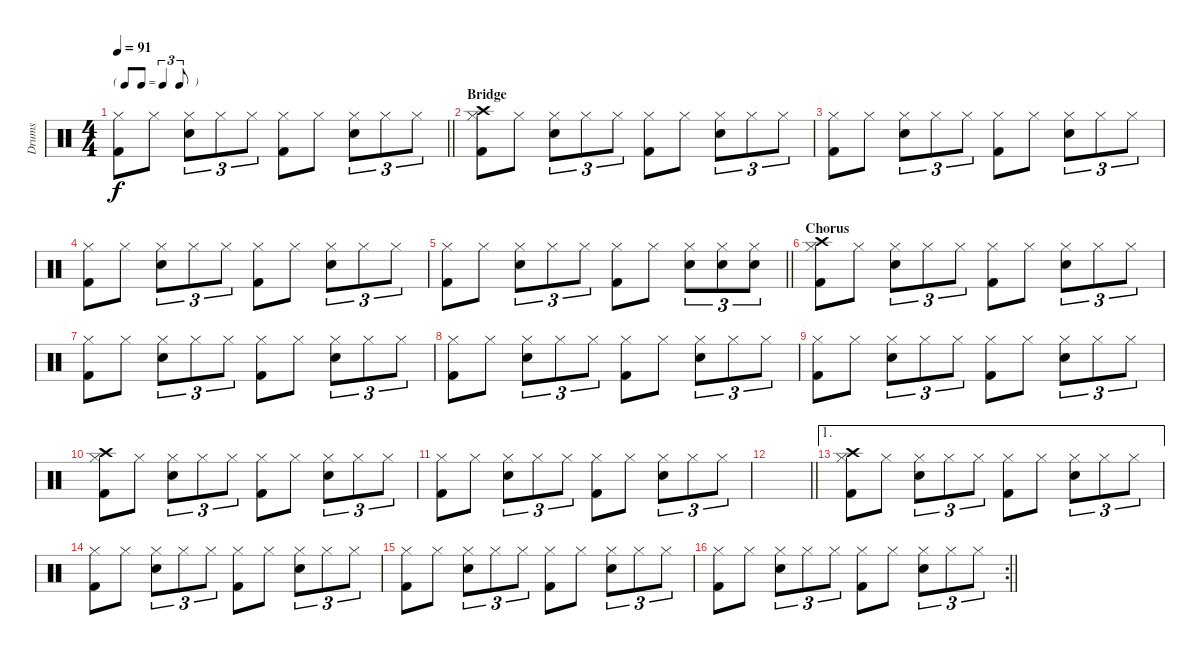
\track ("Drums" "Drums") {instrument percussion}
\staff {score}
\articulation defaults
\ts (4 4)
\tf triplet8th
\tempo 91
\clef neutral
\barLineRight lightlight
\ks c
("Hi-Hat (closed)" "Kick (hit) 2").8{dy f} "Hi-Hat (closed)".8 ("Hi-Hat (closed)" "Snare (hit) 2").8{tu (3 2)} "Hi-Hat (closed)".8{tu (3 2)} "Hi-Hat (closed)".8{tu (3 2)} ("Hi-Hat (closed)" "Kick (hit) 2").8 "Hi-Hat (closed)".8 ("Hi-Hat (closed)" "Snare (hit) 2").8{tu (3 2)} "Hi-Hat (closed)".8{tu (3 2)} "Hi-Hat (closed)".8{tu (3 2)} |
\section ("" "Bridge")
("Crash high (hit)" "Hi-Hat (closed)" "Kick (hit) 2").8 "Hi-Hat (closed)".8 ("Hi-Hat (closed)" "Snare (hit) 2").8{tu (3 2)} "Hi-Hat (closed)".8{tu (3 2)} "Hi-Hat (closed)".8{tu (3 2)} ("Hi-Hat (closed)" "Kick (hit) 2").8 "Hi-Hat (closed)".8 ("Hi-Hat (closed)" "Snare (hit) 2").8{tu (3 2)} "Hi-Hat (closed)".8{tu (3 2)} "Hi-Hat (closed)".8{tu (3 2)} |
("Hi-Hat (closed)" "Kick (hit) 2").8 "Hi-Hat (closed)".8 ("Hi-Hat (closed)" "Snare (hit) 2").8{tu (3 2)} "Hi-Hat (closed)".8{tu (3 2)} "Hi-Hat (closed)".8{tu (3 2)} ("Hi-Hat (closed)" "Kick (hit) 2").8 "Hi-Hat (closed)".8 ("Hi-Hat (closed)" "Snare (hit) 2").8{tu (3 2)} "Hi-Hat (closed)".8{tu (3 2)} "Hi-Hat (closed)".8{tu (3 2)} |
("Hi-Hat (closed)" "Kick (hit) 2").8 "Hi-Hat (closed)".8 ("Hi-Hat (closed)" "Snare (hit) 2").8{tu (3 2)} "Hi-Hat (closed)".8{tu (3 2)} "Hi-Hat (closed)".8{tu (3 2)} ("Hi-Hat (closed)" "Kick (hit) 2").8 "Hi-Hat (closed)".8 ("Hi-Hat (closed)" "Snare (hit) 2").8{tu (3 2)} "Hi-Hat (closed)".8{tu (3 2)} "Hi-Hat (closed)".8{tu (3 2)} |
\barLineRight lightlight
("Hi-Hat (closed)" "Kick (hit) 2").8 "Hi-Hat (closed)".8 ("Hi-Hat (closed)" "Snare (hit) 2").8{tu (3 2)} "Hi-Hat (closed)".8{tu (3 2)} "Hi-Hat (closed)".8{tu (3 2)} ("Hi-Hat (closed)" "Kick (hit) 2").8 "Hi-Hat (closed)".8 ("Hi-Hat (closed)" "Snare (hit) 2").8{tu (3 2)} ("Hi-Hat (closed)" "Snare (hit) 2").8{tu (3 2)} ("Hi-Hat (closed)" "Snare (hit) 2").8{tu (3 2)} |
\section ("" "Chorus")
("Crash high (hit)" "Hi-Hat (closed)" "Kick (hit) 2").8 "Hi-Hat (closed)".8 ("Hi-Hat (closed)" "Snare (hit) 2").8{tu (3 2)} "Hi-Hat (closed)".8{tu (3 2)} "Hi-Hat (closed)".8{tu (3 2)} ("Hi-Hat (closed)" "Kick (hit) 2").8 "Hi-Hat (closed)".8 ("Hi-Hat (closed)" "Snare (hit) 2").8{tu (3 2)} "Hi-Hat (closed)".8{tu (3 2)} "Hi-Hat (closed)".8{tu (3 2)} |
("Hi-Hat (closed)" "Kick (hit) 2").8 "Hi-Hat (closed)".8 ("Hi-Hat (closed)" "Snare (hit) 2").8{tu (3 2)} "Hi-Hat (closed)".8{tu (3 2)} "Hi-Hat (closed)".8{tu (3 2)} ("Hi-Hat (closed)" "Kick (hit) 2").8 "Hi-Hat (closed)".8 ("Hi-Hat (closed)" "Snare (hit) 2").8{tu (3 2)} "Hi-Hat (closed)".8{tu (3 2)} "Hi-Hat (closed)".8{tu (3 2)} |
("Hi-Hat (closed)" "Kick (hit) 2").8 "Hi-Hat (closed)".8 ("Hi-Hat (closed)" "Snare (hit) 2").8{tu (3 2)} "Hi-Hat (closed)".8{tu (3 2)} "Hi-Hat (closed)".8{tu (3 2)} ("Hi-Hat (closed)" "Kick (hit) 2").8 "Hi-Hat (closed)".8 ("Hi-Hat (closed)" "Snare (hit) 2").8{tu (3 2)} "Hi-Hat (closed)".8{tu (3 2)} "Hi-Hat (closed)".8{tu (3 2)} |
("Hi-Hat (closed)" "Kick (hit) 2").8 "Hi-Hat (closed)".8 ("Hi-Hat (closed)" "Snare (hit) 2").8{tu (3 2)} "Hi-Hat (closed)".8{tu (3 2)} "Hi-Hat (closed)".8{tu (3 2)} ("Hi-Hat (closed)" "Kick (hit) 2").8 "Hi-Hat (closed)".8 ("Hi-Hat (closed)" "Snare (hit) 2").8{tu (3 2)} "Hi-Hat (closed)".8{tu (3 2)} "Hi-Hat (closed)".8{tu (3 2)} |
("Crash high (hit)" "Hi-Hat (closed)" "Kick (hit) 2").8 "Hi-Hat (closed)".8 ("Hi-Hat (closed)" "Snare (hit) 2").8{tu (3 2)} "Hi-Hat (closed)".8{tu (3 2)} "Hi-Hat (closed)".8{tu (3 2)} ("Hi-Hat (closed)" "Kick (hit) 2").8 "Hi-Hat (closed)".8 ("Hi-Hat (closed)" "Snare (hit) 2").8{tu (3 2)} "Hi-Hat (closed)".8{tu (3 2)} "Hi-Hat (closed)".8{tu (3 2)} |
("Hi-Hat (closed)" "Kick (hit) 2").8 "Hi-Hat (closed)".8 ("Hi-Hat (closed)" "Snare (hit) 2").8{tu (3 2)} "Hi-Hat (closed)".8{tu (3 2)} "Hi-Hat (closed)".8{tu (3 2)} ("Hi-Hat (closed)" "Kick (hit) 2").8 "Hi-Hat (closed)".8 ("Hi-Hat (closed)" "Snare (hit) 2").8{tu (3 2)} "Hi-Hat (closed)".8{tu (3 2)} "Hi-Hat (closed)".8{tu (3 2)} |
\barLineRight lightlight
|
\ae 1
("Crash high (hit)" "Hi-Hat (closed)" "Kick (hit) 2").8 "Hi-Hat (closed)".8 ("Hi-Hat (closed)" "Snare (hit) 2").8{tu (3 2)} "Hi-Hat (closed)".8{tu (3 2)} "Hi-Hat (closed)".8{tu (3 2)} ("Hi-Hat (closed)" "Kick (hit) 2").8 "Hi-Hat (closed)".8 ("Hi-Hat (closed)" "Snare (hit) 2").8{tu (3 2)} "Hi-Hat (closed)".8{tu (3 2)} "Hi-Hat (closed)".8{tu (3 2)} |
("Hi-Hat (closed)" "Kick (hit) 2").8 "Hi-Hat (closed)".8 ("Hi-Hat (closed)" "Snare (hit) 2").8{tu (3 2)} "Hi-Hat (closed)".8{tu (3 2)} "Hi-Hat (closed)".8{tu (3 2)} ("Hi-Hat (closed)" "Kick (hit) 2").8 "Hi-Hat (closed)".8 ("Hi-Hat (closed)" "Snare (hit) 2").8{tu (3 2)} "Hi-Hat (closed)".8{tu (3 2)} "Hi-Hat (closed)".8{tu (3 2)} |
("Hi-Hat (closed)" "Kick (hit) 2").8 "Hi-Hat (closed)".8 ("Hi-Hat (closed)" "Snare (hit) 2").8{tu (3 2)} "Hi-Hat (closed)".8{tu (3 2)} "Hi-Hat (closed)".8{tu (3 2)} ("Hi-Hat (closed)" "Kick (hit) 2").8 "Hi-Hat (closed)".8 ("Hi-Hat (closed)" "Snare (hit) 2").8{tu (3 2)} "Hi-Hat (closed)".8{tu (3 2)} "Hi-Hat (closed)".8{tu (3 2)} |
\rc 2
\barLineRight lightlight
("Hi-Hat (closed)" "Kick (hit) 2").8 "Hi-Hat (closed)".8 ("Hi-Hat (closed)" "Snare (hit) 2").8{tu (3 2)} "Hi-Hat (closed)".8{tu (3 2)} "Hi-Hat (closed)".8{tu (3 2)} ("Hi-Hat (closed)" "Kick (hit) 2").8 "Hi-Hat (closed)".8 ("Hi-Hat (closed)" "Snare (hit) 2").8{tu (3 2)} "Hi-Hat (closed)".8{tu (3 2)} "Hi-Hat (closed)".8{tu (3 2)}
